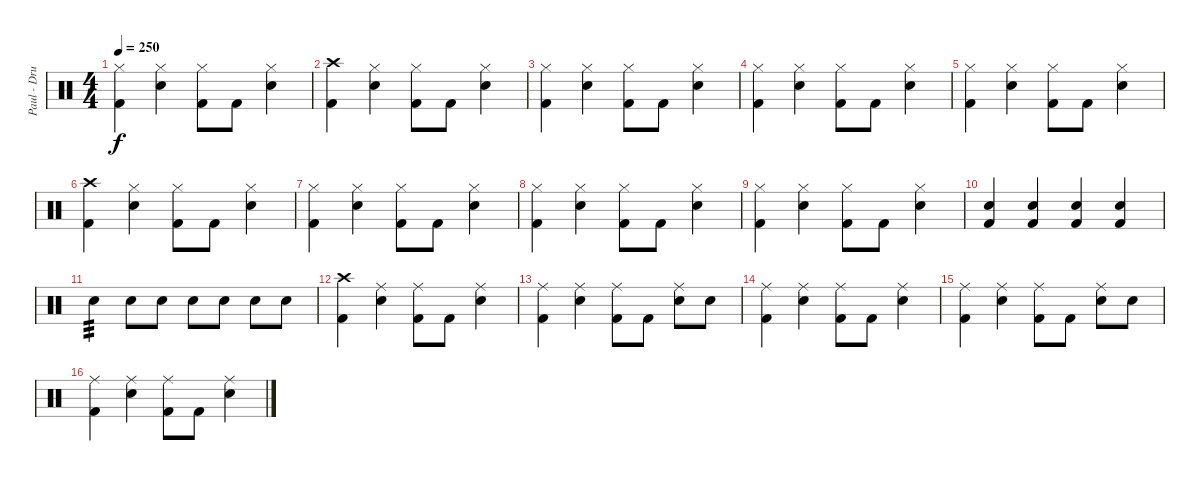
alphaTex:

\track ("Paul - Drums" "Paul - Dru") {instrument percussion}
\staff {score}
\articulation defaults
\ts (4 4)
\tempo 250
\clef neutral
\ks c
("Hi-Hat (closed)" "Kick (hit) 2").4{dy f} ("Hi-Hat (closed)" "Electric Snare (hit)").4 ("Hi-Hat (closed)" "Kick (hit) 2").8 "Kick (hit) 2".8 ("Hi-Hat (closed)" "Electric Snare (hit)").4 |
("Crash high (hit)" "Kick (hit) 2").4 ("Hi-Hat (closed)" "Electric Snare (hit)").4 ("Hi-Hat (closed)" "Kick (hit) 2").8 "Kick (hit) 2".8 ("Hi-Hat (closed)" "Electric Snare (hit)").4 |
("Hi-Hat (closed)" "Kick (hit) 2").4 ("Hi-Hat (closed)" "Electric Snare (hit)").4 ("Hi-Hat (closed)" "Kick (hit) 2").8 "Kick (hit) 2".8 ("Hi-Hat (closed)" "Electric Snare (hit)").4 |
("Hi-Hat (closed)" "Kick (hit) 2").4 ("Hi-Hat (closed)" "Electric Snare (hit)").4 ("Hi-Hat (closed)" "Kick (hit) 2").8 "Kick (hit) 2".8 ("Hi-Hat (closed)" "Electric Snare (hit)").4 |
("Hi-Hat (closed)" "Kick (hit) 2").4 ("Hi-Hat (closed)" "Electric Snare (hit)").4 ("Hi-Hat (closed)" "Kick (hit) 2").8 "Kick (hit) 2".8 ("Hi-Hat (closed)" "Electric Snare (hit)").4 |
("Crash high (hit)" "Kick (hit) 2").4 ("Hi-Hat (closed)" "Electric Snare (hit)").4 ("Hi-Hat (closed)" "Kick (hit) 2").8 "Kick (hit) 2".8 ("Hi-Hat (closed)" "Electric Snare (hit)").4 |
("Hi-Hat (closed)" "Kick (hit) 2").4 ("Hi-Hat (closed)" "Electric Snare (hit)").4 ("Hi-Hat (closed)" "Kick (hit) 2").8 "Kick (hit) 2".8 ("Hi-Hat (closed)" "Electric Snare (hit)").4 |
("Hi-Hat (closed)" "Kick (hit) 2").4 ("Hi-Hat (closed)" "Electric Snare (hit)").4 ("Hi-Hat (closed)" "Kick (hit) 2").8 "Kick (hit) 2".8 ("Hi-Hat (closed)" "Electric Snare (hit)").4 |
("Hi-Hat (closed)" "Kick (hit) 2").4 ("Hi-Hat (closed)" "Electric Snare (hit)").4 ("Hi-Hat (closed)" "Kick (hit) 2").8 "Kick (hit) 2".8 ("Hi-Hat (closed)" "Electric Snare (hit)").4 |
("Electric Snare (hit)" "Kick (hit) 2").4 ("Electric Snare (hit)" "Kick (hit) 2").4 ("Electric Snare (hit)" "Kick (hit) 2").4 ("Electric Snare (hit)" "Kick (hit) 2").4 |
"Electric Snare (hit)".4{tp 3} "Electric Snare (hit)".8 "Electric Snare (hit)".8 "Electric Snare (hit)".8 "Electric Snare (hit)".8 "Electric Snare (hit)".8 "Electric Snare (hit)".8 |
("Crash high (hit)" "Kick (hit) 2").4 ("Ride (middle)" "Electric Snare (hit)").4 ("Ride (middle)" "Kick (hit) 2").8 "Kick (hit) 2".8 ("Ride (middle)" "Electric Snare (hit)").4 |
("Ride (middle)" "Kick (hit) 2").4 ("Ride (middle)" "Electric Snare (hit)").4 ("Ride (middle)" "Kick (hit) 2").8 "Kick (hit) 2".8 ("Ride (middle)" "Electric Snare (hit)").8 "Electric Snare (hit)".8 |
("Ride (middle)" "Kick (hit) 2").4 ("Ride (middle)" "Electric Snare (hit)").4 ("Ride (middle)" "Kick (hit) 2").8 "Kick (hit) 2".8 ("Ride (middle)" "Electric Snare (hit)").4 |
("Ride (middle)" "Kick (hit) 2").4 ("Ride (middle)" "Electric Snare (hit)").4 ("Ride (middle)" "Kick (hit) 2").8 "Kick (hit) 2".8 ("Ride (middle)" "Electric Snare (hit)").8 "Electric Snare (hit)".8 |
("Ride (middle)" "Kick (hit) 2").4 ("Ride (middle)" "Electric Snare (hit)").4 ("Ride (middle)" "Kick (hit) 2").8 "Kick (hit) 2".8 ("Ride (middle)" "Electric Snare (hit)").4
